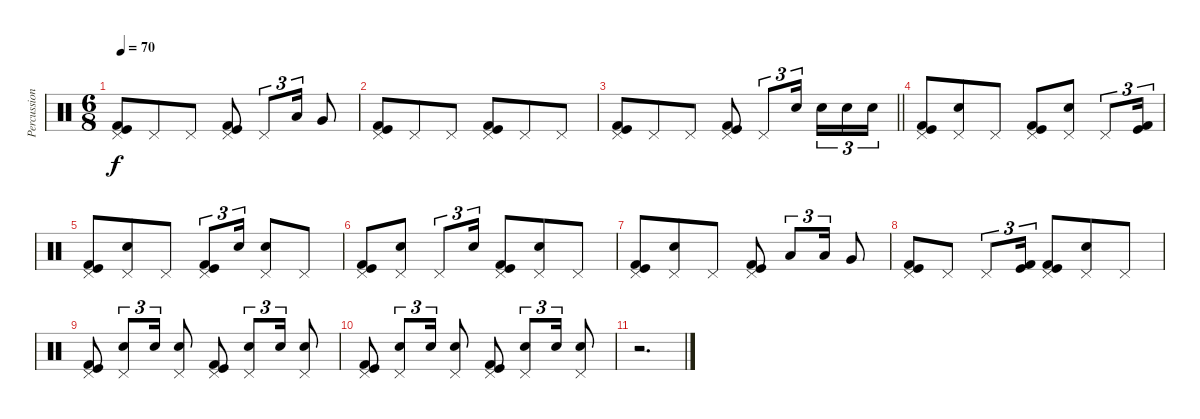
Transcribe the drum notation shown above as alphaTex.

\track ("Percussion" "Percussion") {instrument percussion}
\staff {score}
\articulation defaults
\ts (6 8)
\tempo 70
\clef neutral
\ks c
("Pedal Hi-Hat (hit)" "Kick (hit)" "Kick (hit) 2").8{dy f} "Pedal Hi-Hat (hit)".8 "Pedal Hi-Hat (hit)".8 ("Pedal Hi-Hat (hit)" "Kick (hit)" "Kick (hit) 2").8 "Pedal Hi-Hat (hit)".8{tu (3 2)} "Low Tom (hit)".16{tu (3 2)} "Very Low Tom (hit)".8 |
("Pedal Hi-Hat (hit)" "Kick (hit)" "Kick (hit) 2").8 "Pedal Hi-Hat (hit)".8 "Pedal Hi-Hat (hit)".8 ("Pedal Hi-Hat (hit)" "Kick (hit)" "Kick (hit) 2").8 "Pedal Hi-Hat (hit)".8 "Pedal Hi-Hat (hit)".8 |
\barLineRight lightlight
("Pedal Hi-Hat (hit)" "Kick (hit)" "Kick (hit) 2").8 "Pedal Hi-Hat (hit)".8 "Pedal Hi-Hat (hit)".8 ("Pedal Hi-Hat (hit)" "Kick (hit)" "Kick (hit) 2").8 "Pedal Hi-Hat (hit)".8{tu (3 2)} "Electric Snare (hit)".16{tu (3 2) beam splitsecondary} "Electric Snare (hit)".16{tu (3 2)} "Electric Snare (hit)".16{tu (3 2)} "Electric Snare (hit)".16{tu (3 2)} |
\section ("" "")
("Pedal Hi-Hat (hit)" "Kick (hit)" "Kick (hit) 2").8 ("Pedal Hi-Hat (hit)" "Electric Snare (hit)").8 "Pedal Hi-Hat (hit)".8 ("Pedal Hi-Hat (hit)" "Kick (hit)" "Kick (hit) 2").8 ("Pedal Hi-Hat (hit)" "Electric Snare (hit)").8 "Pedal Hi-Hat (hit)".8{tu (3 2)} ("Kick (hit)" "Kick (hit) 2").16{tu (3 2)} |
("Pedal Hi-Hat (hit)" "Kick (hit)" "Kick (hit) 2").8 ("Pedal Hi-Hat (hit)" "Electric Snare (hit)").8 "Pedal Hi-Hat (hit)".8 ("Pedal Hi-Hat (hit)" "Kick (hit)" "Kick (hit) 2").8{tu (3 2)} "Electric Snare (hit)".16{tu (3 2)} ("Pedal Hi-Hat (hit)" "Electric Snare (hit)").8 "Pedal Hi-Hat (hit)".8 |
("Pedal Hi-Hat (hit)" "Kick (hit)" "Kick (hit) 2").8 ("Pedal Hi-Hat (hit)" "Electric Snare (hit)").8 "Pedal Hi-Hat (hit)".8{tu (3 2)} "Electric Snare (hit)".16{tu (3 2)} ("Pedal Hi-Hat (hit)" "Kick (hit)" "Kick (hit) 2").8 ("Pedal Hi-Hat (hit)" "Electric Snare (hit)").8 "Pedal Hi-Hat (hit)".8 |
("Pedal Hi-Hat (hit)" "Kick (hit)" "Kick (hit) 2").8 ("Pedal Hi-Hat (hit)" "Electric Snare (hit)").8 "Pedal Hi-Hat (hit)".8 ("Pedal Hi-Hat (hit)" "Kick (hit)" "Kick (hit) 2").8 "Low Tom (hit)".8{tu (3 2)} "Low Tom (hit)".16{tu (3 2)} "Very Low Tom (hit)".8 |
("Pedal Hi-Hat (hit)" "Kick (hit)" "Kick (hit) 2").8 "Pedal Hi-Hat (hit)".8 "Pedal Hi-Hat (hit)".8{tu (3 2)} ("Kick (hit)" "Kick (hit) 2").16{tu (3 2)} ("Pedal Hi-Hat (hit)" "Kick (hit)" "Kick (hit) 2").8 ("Pedal Hi-Hat (hit)" "Electric Snare (hit)").8 "Pedal Hi-Hat (hit)".8 |
("Pedal Hi-Hat (hit)" "Kick (hit)" "Kick (hit) 2").8 ("Pedal Hi-Hat (hit)" "Electric Snare (hit)").8{tu (3 2)} "Electric Snare (hit)".16{tu (3 2)} ("Pedal Hi-Hat (hit)" "Electric Snare (hit)").8 ("Pedal Hi-Hat (hit)" "Kick (hit)" "Kick (hit) 2").8 ("Pedal Hi-Hat (hit)" "Electric Snare (hit)").8{tu (3 2)} "Electric Snare (hit)".16{tu (3 2)} ("Pedal Hi-Hat (hit)" "Electric Snare (hit)").8 |
("Pedal Hi-Hat (hit)" "Kick (hit)" "Kick (hit) 2").8 ("Pedal Hi-Hat (hit)" "Electric Snare (hit)").8{tu (3 2)} "Electric Snare (hit)".16{tu (3 2)} ("Pedal Hi-Hat (hit)" "Electric Snare (hit)").8 ("Pedal Hi-Hat (hit)" "Kick (hit)" "Kick (hit) 2").8 ("Pedal Hi-Hat (hit)" "Electric Snare (hit)").8{tu (3 2)} "Electric Snare (hit)".16{tu (3 2)} ("Pedal Hi-Hat (hit)" "Electric Snare (hit)").8 |
r.2{d}
